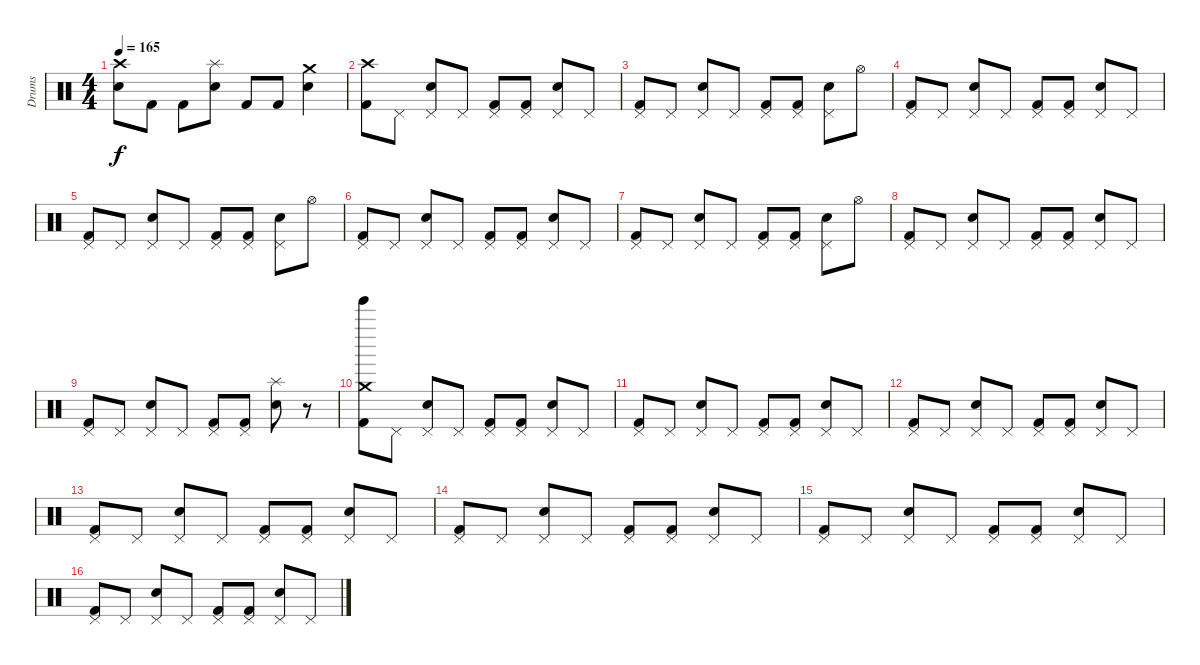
\track ("Drums" "Drums") {instrument percussion}
\staff {score}
\articulation defaults
\ts (4 4)
\tempo 165
\clef neutral
\ks c
("Crash high (hit)" "Snare (hit) 2").8{dy f} "Kick (hit) 2".8 "Kick (hit) 2".8 ("Splash (hit)" "Snare (hit) 2").8 "Kick (hit) 2".8 "Kick (hit) 2".8 ("Crash medium (hit)" "Snare (hit) 2").4 |
("Crash high (hit)" "Kick (hit) 2").8 "Pedal Hi-Hat (hit)".8 ("Pedal Hi-Hat (hit)" "Snare (hit) 2").8 "Pedal Hi-Hat (hit)".8 ("Pedal Hi-Hat (hit)" "Kick (hit) 2").8 ("Pedal Hi-Hat (hit)" "Kick (hit) 2").8 ("Pedal Hi-Hat (hit)" "Snare (hit) 2").8 "Pedal Hi-Hat (hit)".8 |
("Pedal Hi-Hat (hit)" "Kick (hit) 2").8 "Pedal Hi-Hat (hit)".8 ("Pedal Hi-Hat (hit)" "Snare (hit) 2").8 "Pedal Hi-Hat (hit)".8 ("Pedal Hi-Hat (hit)" "Kick (hit) 2").8 ("Pedal Hi-Hat (hit)" "Kick (hit) 2").8 ("Pedal Hi-Hat (hit)" "Snare (hit) 2").8 "Hi-Hat (open)".8 |
("Pedal Hi-Hat (hit)" "Kick (hit) 2").8 "Pedal Hi-Hat (hit)".8 ("Pedal Hi-Hat (hit)" "Snare (hit) 2").8 "Pedal Hi-Hat (hit)".8 ("Pedal Hi-Hat (hit)" "Kick (hit) 2").8 ("Pedal Hi-Hat (hit)" "Kick (hit) 2").8 ("Pedal Hi-Hat (hit)" "Snare (hit) 2").8 "Pedal Hi-Hat (hit)".8 |
("Pedal Hi-Hat (hit)" "Kick (hit) 2").8 "Pedal Hi-Hat (hit)".8 ("Pedal Hi-Hat (hit)" "Snare (hit) 2").8 "Pedal Hi-Hat (hit)".8 ("Pedal Hi-Hat (hit)" "Kick (hit) 2").8 ("Pedal Hi-Hat (hit)" "Kick (hit) 2").8 ("Pedal Hi-Hat (hit)" "Snare (hit) 2").8 "Hi-Hat (open)".8 |
("Pedal Hi-Hat (hit)" "Kick (hit) 2").8 "Pedal Hi-Hat (hit)".8 ("Pedal Hi-Hat (hit)" "Snare (hit) 2").8 "Pedal Hi-Hat (hit)".8 ("Pedal Hi-Hat (hit)" "Kick (hit) 2").8 ("Pedal Hi-Hat (hit)" "Kick (hit) 2").8 ("Pedal Hi-Hat (hit)" "Snare (hit) 2").8 "Pedal Hi-Hat (hit)".8 |
("Pedal Hi-Hat (hit)" "Kick (hit) 2").8 "Pedal Hi-Hat (hit)".8 ("Pedal Hi-Hat (hit)" "Snare (hit) 2").8 "Pedal Hi-Hat (hit)".8 ("Pedal Hi-Hat (hit)" "Kick (hit) 2").8 ("Pedal Hi-Hat (hit)" "Kick (hit) 2").8 ("Pedal Hi-Hat (hit)" "Snare (hit) 2").8 "Hi-Hat (open)".8 |
("Pedal Hi-Hat (hit)" "Kick (hit) 2").8 "Pedal Hi-Hat (hit)".8 ("Pedal Hi-Hat (hit)" "Snare (hit) 2").8 "Pedal Hi-Hat (hit)".8 ("Pedal Hi-Hat (hit)" "Kick (hit) 2").8 ("Pedal Hi-Hat (hit)" "Kick (hit) 2").8 ("Pedal Hi-Hat (hit)" "Snare (hit) 2").8 "Pedal Hi-Hat (hit)".8 |
("Pedal Hi-Hat (hit)" "Kick (hit) 2").8 "Pedal Hi-Hat (hit)".8 ("Pedal Hi-Hat (hit)" "Snare (hit) 2").8 "Pedal Hi-Hat (hit)".8 ("Pedal Hi-Hat (hit)" "Kick (hit) 2").8 ("Pedal Hi-Hat (hit)" "Kick (hit) 2").8 ("Splash (hit)" "Snare (hit) 2").8 r.8 |
("Tinkle Bell (hit)" "Crash medium (hit)" "Kick (hit) 2").8 "Pedal Hi-Hat (hit)".8 ("Pedal Hi-Hat (hit)" "Snare (hit) 2").8 "Pedal Hi-Hat (hit)".8 ("Pedal Hi-Hat (hit)" "Kick (hit) 2").8 ("Pedal Hi-Hat (hit)" "Kick (hit) 2").8 ("Pedal Hi-Hat (hit)" "Snare (hit) 2").8 "Pedal Hi-Hat (hit)".8 |
("Pedal Hi-Hat (hit)" "Kick (hit) 2").8 "Pedal Hi-Hat (hit)".8 ("Pedal Hi-Hat (hit)" "Snare (hit) 2").8 "Pedal Hi-Hat (hit)".8 ("Pedal Hi-Hat (hit)" "Kick (hit) 2").8 ("Pedal Hi-Hat (hit)" "Kick (hit) 2").8 ("Pedal Hi-Hat (hit)" "Snare (hit) 2").8 "Pedal Hi-Hat (hit)".8 |
("Pedal Hi-Hat (hit)" "Kick (hit) 2").8 "Pedal Hi-Hat (hit)".8 ("Pedal Hi-Hat (hit)" "Snare (hit) 2").8 "Pedal Hi-Hat (hit)".8 ("Pedal Hi-Hat (hit)" "Kick (hit) 2").8 ("Pedal Hi-Hat (hit)" "Kick (hit) 2").8 ("Pedal Hi-Hat (hit)" "Snare (hit) 2").8 "Pedal Hi-Hat (hit)".8 |
("Pedal Hi-Hat (hit)" "Kick (hit) 2").8 "Pedal Hi-Hat (hit)".8 ("Pedal Hi-Hat (hit)" "Snare (hit) 2").8 "Pedal Hi-Hat (hit)".8 ("Pedal Hi-Hat (hit)" "Kick (hit) 2").8 ("Pedal Hi-Hat (hit)" "Kick (hit) 2").8 ("Pedal Hi-Hat (hit)" "Snare (hit) 2").8 "Pedal Hi-Hat (hit)".8 |
("Pedal Hi-Hat (hit)" "Kick (hit) 2").8 "Pedal Hi-Hat (hit)".8 ("Pedal Hi-Hat (hit)" "Snare (hit) 2").8 "Pedal Hi-Hat (hit)".8 ("Pedal Hi-Hat (hit)" "Kick (hit) 2").8 ("Pedal Hi-Hat (hit)" "Kick (hit) 2").8 ("Pedal Hi-Hat (hit)" "Snare (hit) 2").8 "Pedal Hi-Hat (hit)".8 |
("Pedal Hi-Hat (hit)" "Kick (hit) 2").8 "Pedal Hi-Hat (hit)".8 ("Pedal Hi-Hat (hit)" "Snare (hit) 2").8 "Pedal Hi-Hat (hit)".8 ("Pedal Hi-Hat (hit)" "Kick (hit) 2").8 ("Pedal Hi-Hat (hit)" "Kick (hit) 2").8 ("Pedal Hi-Hat (hit)" "Snare (hit) 2").8 "Pedal Hi-Hat (hit)".8 |
("Pedal Hi-Hat (hit)" "Kick (hit) 2").8 "Pedal Hi-Hat (hit)".8 ("Pedal Hi-Hat (hit)" "Snare (hit) 2").8 "Pedal Hi-Hat (hit)".8 ("Pedal Hi-Hat (hit)" "Kick (hit) 2").8 ("Pedal Hi-Hat (hit)" "Kick (hit) 2").8 ("Pedal Hi-Hat (hit)" "Snare (hit) 2").8 "Pedal Hi-Hat (hit)".8
